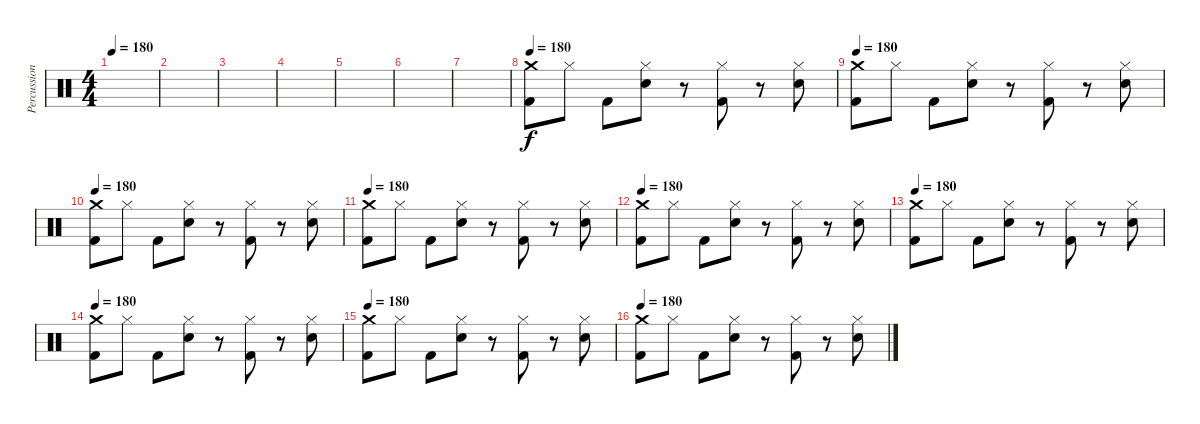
\track ("Percussion" "Percussion") {instrument percussion}
\staff {score}
\articulation defaults
\ts (4 4)
\tempo 180
\clef neutral
\ks c
|
|
|
|
|
|
|
\tempo 180
("Crash medium (hit)" "Kick (hit) 2").8 "Hi-Hat (closed)".8 "Kick (hit) 2".8 ("Hi-Hat (closed)" "Snare (hit) 2").8 r.8 ("Hi-Hat (closed)" "Kick (hit) 2").8 r.8 ("Hi-Hat (closed)" "Snare (hit) 2").8 |
\tempo 180
("Crash medium (hit)" "Kick (hit) 2").8 "Hi-Hat (closed)".8 "Kick (hit) 2".8 ("Hi-Hat (closed)" "Snare (hit) 2").8 r.8 ("Hi-Hat (closed)" "Kick (hit) 2").8 r.8 ("Hi-Hat (closed)" "Snare (hit) 2").8 |
\tempo 180
("Crash medium (hit)" "Kick (hit) 2").8 "Hi-Hat (closed)".8 "Kick (hit) 2".8 ("Hi-Hat (closed)" "Snare (hit) 2").8 r.8 ("Hi-Hat (closed)" "Kick (hit) 2").8 r.8 ("Hi-Hat (closed)" "Snare (hit) 2").8 |
\tempo 180
("Crash medium (hit)" "Kick (hit) 2").8 "Hi-Hat (closed)".8 "Kick (hit) 2".8 ("Hi-Hat (closed)" "Snare (hit) 2").8 r.8 ("Hi-Hat (closed)" "Kick (hit) 2").8 r.8 ("Hi-Hat (closed)" "Snare (hit) 2").8 |
\tempo 180
("Crash medium (hit)" "Kick (hit) 2").8 "Hi-Hat (closed)".8 "Kick (hit) 2".8 ("Hi-Hat (closed)" "Snare (hit) 2").8 r.8 ("Hi-Hat (closed)" "Kick (hit) 2").8 r.8 ("Hi-Hat (closed)" "Snare (hit) 2").8 |
\tempo 180
("Crash medium (hit)" "Kick (hit) 2").8 "Hi-Hat (closed)".8 "Kick (hit) 2".8 ("Hi-Hat (closed)" "Snare (hit) 2").8 r.8 ("Hi-Hat (closed)" "Kick (hit) 2").8 r.8 ("Hi-Hat (closed)" "Snare (hit) 2").8 |
\tempo 180
("Crash medium (hit)" "Kick (hit) 2").8 "Hi-Hat (closed)".8 "Kick (hit) 2".8 ("Hi-Hat (closed)" "Snare (hit) 2").8 r.8 ("Hi-Hat (closed)" "Kick (hit) 2").8 r.8 ("Hi-Hat (closed)" "Snare (hit) 2").8 |
\tempo 180
("Crash medium (hit)" "Kick (hit) 2").8 "Hi-Hat (closed)".8 "Kick (hit) 2".8 ("Hi-Hat (closed)" "Snare (hit) 2").8 r.8 ("Hi-Hat (closed)" "Kick (hit) 2").8 r.8 ("Hi-Hat (closed)" "Snare (hit) 2").8 |
\tempo 180
("Crash medium (hit)" "Kick (hit) 2").8 "Hi-Hat (closed)".8 "Kick (hit) 2".8 ("Hi-Hat (closed)" "Snare (hit) 2").8 r.8 ("Hi-Hat (closed)" "Kick (hit) 2").8 r.8 ("Hi-Hat (closed)" "Snare (hit) 2").8
